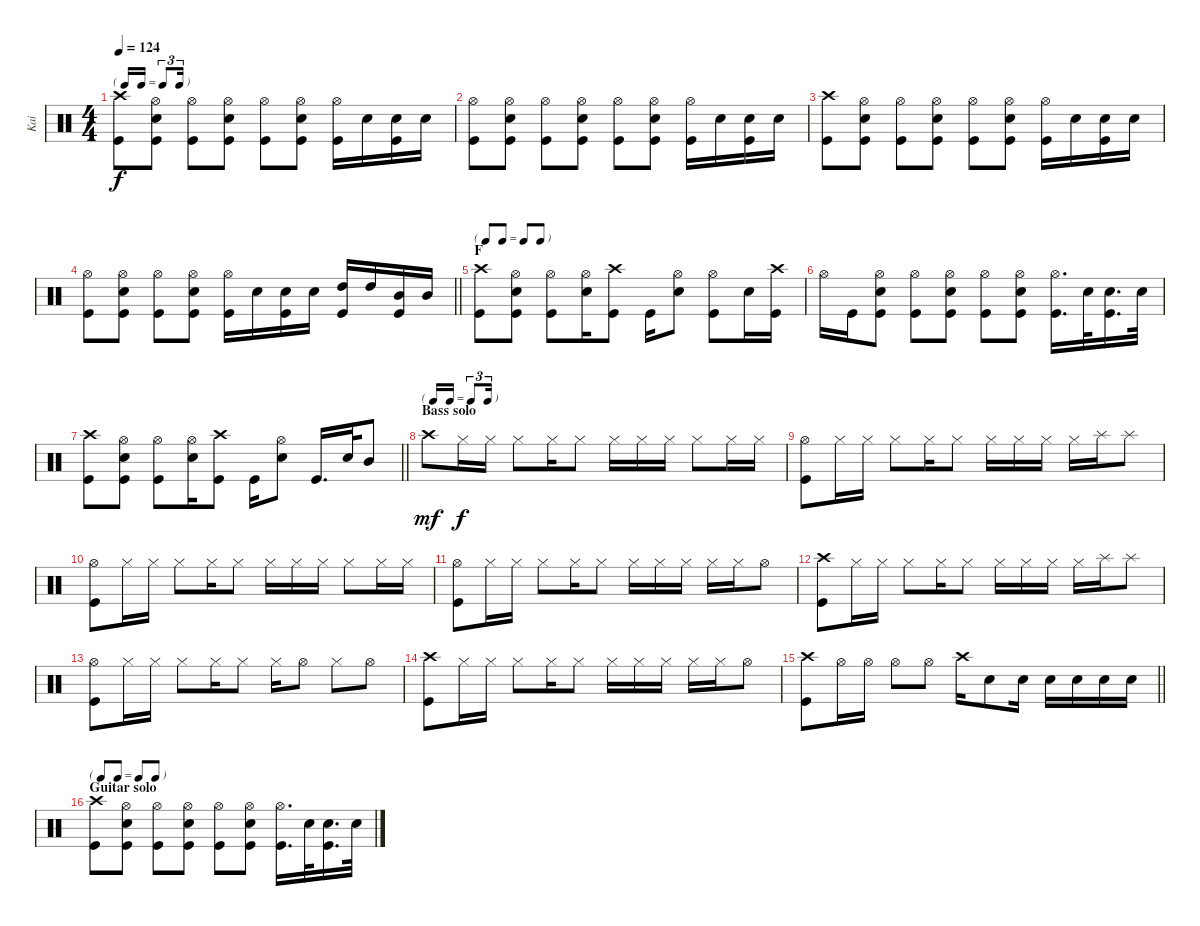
\track ("Kai" "Kai") {instrument percussion}
\staff {score}
\articulation defaults
\ts (4 4)
\tf triplet16th
\tempo 124
\clef neutral
\ks c
("Kick (hit)" "Crash high (hit)").8{dy f} ("Hi-Hat (open)" "Snare (hit) 2" "Kick (hit)").8 ("Hi-Hat (open)" "Kick (hit)").8 ("Hi-Hat (open)" "Snare (hit) 2" "Kick (hit)").8 ("Kick (hit)" "Hi-Hat (open)").8 ("Snare (hit) 2" "Hi-Hat (open)" "Kick (hit)").8 ("Kick (hit)" "Hi-Hat (open)").16 "Snare (hit) 2".16 ("Snare (hit) 2" "Kick (hit)").16 "Snare (hit) 2".16 |
("Hi-Hat (open)" "Kick (hit)").8 ("Hi-Hat (open)" "Snare (hit) 2" "Kick (hit)").8 ("Hi-Hat (open)" "Kick (hit)").8 ("Hi-Hat (open)" "Snare (hit) 2" "Kick (hit)").8 ("Kick (hit)" "Hi-Hat (open)").8 ("Snare (hit) 2" "Hi-Hat (open)" "Kick (hit)").8 ("Kick (hit)" "Hi-Hat (open)").16 "Snare (hit) 2".16 ("Snare (hit) 2" "Kick (hit)").16 "Snare (hit) 2".16 |
("Kick (hit)" "Crash high (hit)").8 ("Hi-Hat (open)" "Snare (hit) 2" "Kick (hit)").8 ("Hi-Hat (open)" "Kick (hit)").8 ("Hi-Hat (open)" "Snare (hit) 2" "Kick (hit)").8 ("Kick (hit)" "Hi-Hat (open)").8 ("Snare (hit) 2" "Hi-Hat (open)" "Kick (hit)").8 ("Kick (hit)" "Hi-Hat (open)").16 "Snare (hit) 2".16 ("Snare (hit) 2" "Kick (hit)").16 "Snare (hit) 2".16 |
\barLineRight lightlight
("Hi-Hat (open)" "Kick (hit)").8 ("Hi-Hat (open)" "Snare (hit) 2" "Kick (hit)").8 ("Hi-Hat (open)" "Kick (hit)").8 ("Hi-Hat (open)" "Snare (hit) 2" "Kick (hit)").8 ("Kick (hit)" "Hi-Hat (open)").16 "Snare (hit) 2".16 ("Snare (hit) 2" "Kick (hit)").16 "Snare (hit) 2".16 ("Kick (hit)" "High Tom (hit)").16 "High Tom (hit)".16 ("Kick (hit)" "Mid Tom (hit)").16 "Mid Tom (hit)".16 |
\tf none
\section ("" "F")
("Kick (hit)" "Crash high (hit)").8 ("Hi-Hat (open)" "Snare (hit) 2" "Kick (hit)").8 ("Hi-Hat (open)" "Kick (hit)").8 ("Hi-Hat (open)" "Snare (hit) 2").16 ("Kick (hit)" "Crash high (hit)").8 "Kick (hit)".16 ("Snare (hit) 2" "Hi-Hat (open)").8 ("Kick (hit)" "Hi-Hat (open)").8 "Snare (hit) 2".16 ("Crash high (hit)" "Kick (hit)").16 |
"Hi-Hat (open)".16 "Kick (hit)".16 ("Snare (hit) 2" "Hi-Hat (open)" "Kick (hit)").8 ("Hi-Hat (open)" "Kick (hit)").8 ("Kick (hit)" "Hi-Hat (open)" "Snare (hit) 2").8 ("Hi-Hat (open)" "Kick (hit)").8 ("Snare (hit) 2" "Kick (hit)" "Hi-Hat (open)").8 ("Kick (hit)" "Hi-Hat (open)").16{d beam merge} "Snare (hit) 2".32 ("Snare (hit) 2" "Kick (hit)").16{d} "Snare (hit) 2".32 |
\barLineRight lightlight
("Kick (hit)" "Crash high (hit)").8 ("Hi-Hat (open)" "Snare (hit) 2" "Kick (hit)").8 ("Hi-Hat (open)" "Kick (hit)").8 ("Hi-Hat (open)" "Snare (hit) 2").16 ("Kick (hit)" "Crash high (hit)").8 "Kick (hit)".16 ("Snare (hit) 2" "Hi-Hat (open)").8 "Kick (hit)".16{d} "Snare (hit) 2".32 "Mid Tom (hit)".8 |
\tf triplet16th
\section ("" "Bass solo")
"Crash high (hit)".8{dy mf} "Hi-Hat (closed)".16{dy f} "Hi-Hat (closed)".16 "Hi-Hat (closed)".8 "Hi-Hat (closed)".16 "Hi-Hat (closed)".8 "Hi-Hat (closed)".16 "Hi-Hat (closed)".16 "Hi-Hat (closed)".16 "Hi-Hat (closed)".8 "Hi-Hat (closed)".16 "Hi-Hat (closed)".16 |
("Hi-Hat (open)" "Kick (hit)").8 "Hi-Hat (closed)".16 "Hi-Hat (closed)".16 "Hi-Hat (closed)".8 "Hi-Hat (closed)".16 "Hi-Hat (closed)".8 "Hi-Hat (closed)".16 "Hi-Hat (closed)".16 "Hi-Hat (closed)".16 "Hi-Hat (closed)".16 "Splash (hit)".16 "Splash (hit)".8 |
("Hi-Hat (open)" "Kick (hit)").8 "Hi-Hat (closed)".16 "Hi-Hat (closed)".16 "Hi-Hat (closed)".8 "Hi-Hat (closed)".16 "Hi-Hat (closed)".8 "Hi-Hat (closed)".16 "Hi-Hat (closed)".16 "Hi-Hat (closed)".16 "Hi-Hat (closed)".8 "Hi-Hat (closed)".16 "Hi-Hat (closed)".16 |
("Hi-Hat (open)" "Kick (hit)").8 "Hi-Hat (closed)".16 "Hi-Hat (closed)".16 "Hi-Hat (closed)".8 "Hi-Hat (closed)".16 "Hi-Hat (closed)".8 "Hi-Hat (closed)".16 "Hi-Hat (closed)".16 "Hi-Hat (closed)".16 "Hi-Hat (closed)".16 "Hi-Hat (closed)".16 "Hi-Hat (open)".8 |
("Crash high (hit)" "Kick (hit)").8 "Hi-Hat (closed)".16 "Hi-Hat (closed)".16 "Hi-Hat (closed)".8 "Hi-Hat (closed)".16 "Hi-Hat (closed)".8 "Hi-Hat (closed)".16 "Hi-Hat (closed)".16 "Hi-Hat (closed)".16 "Hi-Hat (closed)".16 "Splash (hit)".16 "Splash (hit)".8 |
("Hi-Hat (open)" "Kick (hit)").8 "Hi-Hat (closed)".16 "Hi-Hat (closed)".16 "Hi-Hat (closed)".8 "Hi-Hat (closed)".16 "Hi-Hat (closed)".8 "Hi-Hat (closed)".16 "Hi-Hat (open)".8 "Hi-Hat (closed)".8 "Hi-Hat (open)".8 |
("Crash high (hit)" "Kick (hit)").8 "Hi-Hat (closed)".16 "Hi-Hat (closed)".16 "Hi-Hat (closed)".8 "Hi-Hat (closed)".16 "Hi-Hat (closed)".8 "Hi-Hat (closed)".16 "Hi-Hat (closed)".16 "Hi-Hat (closed)".16 "Hi-Hat (closed)".16 "Hi-Hat (closed)".16 "Hi-Hat (open)".8 |
\barLineRight lightlight
("Crash high (hit)" "Kick (hit)").8 "Hi-Hat (open)".16 "Hi-Hat (open)".16 "Hi-Hat (open)".8 "Hi-Hat (open)".8 "Crash high (hit)".16 "Snare (hit) 2".8 "Snare (hit) 2".16 "Snare (hit) 2".16 "Snare (hit) 2".16 "Snare (hit) 2".16 "Snare (hit) 2".16 |
\tf none
\section ("" "Guitar solo")
("Kick (hit)" "Crash high (hit)").8 ("Hi-Hat (open)" "Snare (hit) 2" "Kick (hit)").8 ("Hi-Hat (open)" "Kick (hit)").8 ("Hi-Hat (open)" "Snare (hit) 2" "Kick (hit)").8 ("Kick (hit)" "Hi-Hat (open)").8 ("Snare (hit) 2" "Hi-Hat (open)" "Kick (hit)").8 ("Kick (hit)" "Hi-Hat (open)").16{d} "Snare (hit) 2".32 ("Snare (hit) 2" "Kick (hit)").16{d} "Snare (hit) 2".32
